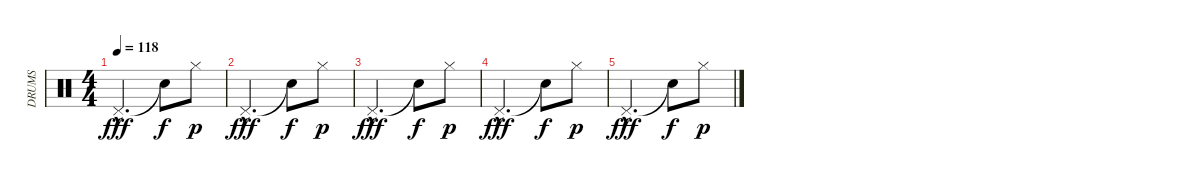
\track ("DRUMS" "DRUMS") {instrument percussion}
\staff {score}
\articulation defaults
\ts (4 4)
\tempo 118
\clef neutral
\ks c "Pedal Hi-Hat (hit)"{hac}.2{d dy fff} "Snare (hit)"{t}.8{dy f} "Hi-Hat (closed)".8{dy p}
|
"Pedal Hi-Hat (hit)"{hac}.2{d dy fff} "Snare (hit)"{t}.8{dy f} "Hi-Hat (closed)".8{dy p} |
"Pedal Hi-Hat (hit)"{hac}.2{d dy fff} "Snare (hit)"{t}.8{dy f} "Hi-Hat (closed)".8{dy p} |
"Pedal Hi-Hat (hit)"{hac}.2{d dy fff} "Snare (hit)"{t}.8{dy f} "Hi-Hat (closed)".8{dy p} |
"Pedal Hi-Hat (hit)"{hac}.2{d dy fff} "Snare (hit)"{t}.8{dy f} "Hi-Hat (closed)".8{dy p}
